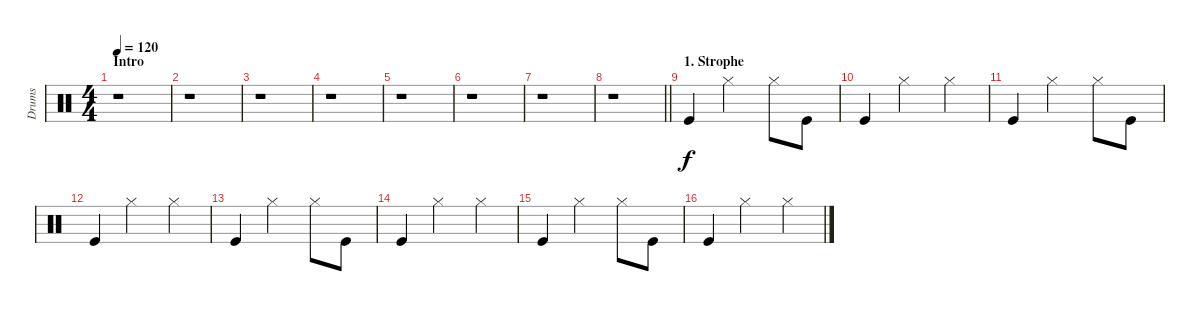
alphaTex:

\track ("Drums" "Drums") {instrument percussion}
\staff {score}
\articulation defaults
\ts (4 4)
\section ("" "Intro")
\tempo 120
\clef neutral
\ks c
r.1{dy f} |
r.1 |
r.1 |
r.1 |
r.1 |
r.1 |
r.1 |
\barLineRight lightlight
r.1 |
\section ("" "1. Strophe")
"Kick (hit)".4 "Hi-Hat (closed)".2 "Hi-Hat (closed)".8 "Kick (hit)".8 |
"Kick (hit)".4 "Hi-Hat (closed)".2 "Hi-Hat (closed)".4 |
"Kick (hit)".4 "Hi-Hat (closed)".2 "Hi-Hat (closed)".8 "Kick (hit)".8 |
"Kick (hit)".4 "Hi-Hat (closed)".2 "Hi-Hat (closed)".4 |
"Kick (hit)".4 "Hi-Hat (closed)".2 "Hi-Hat (closed)".8 "Kick (hit)".8 |
"Kick (hit)".4 "Hi-Hat (closed)".2 "Hi-Hat (closed)".4 |
"Kick (hit)".4 "Hi-Hat (closed)".2 "Hi-Hat (closed)".8 "Kick (hit)".8 |
"Kick (hit)".4 "Hi-Hat (closed)".2 "Hi-Hat (closed)".4
